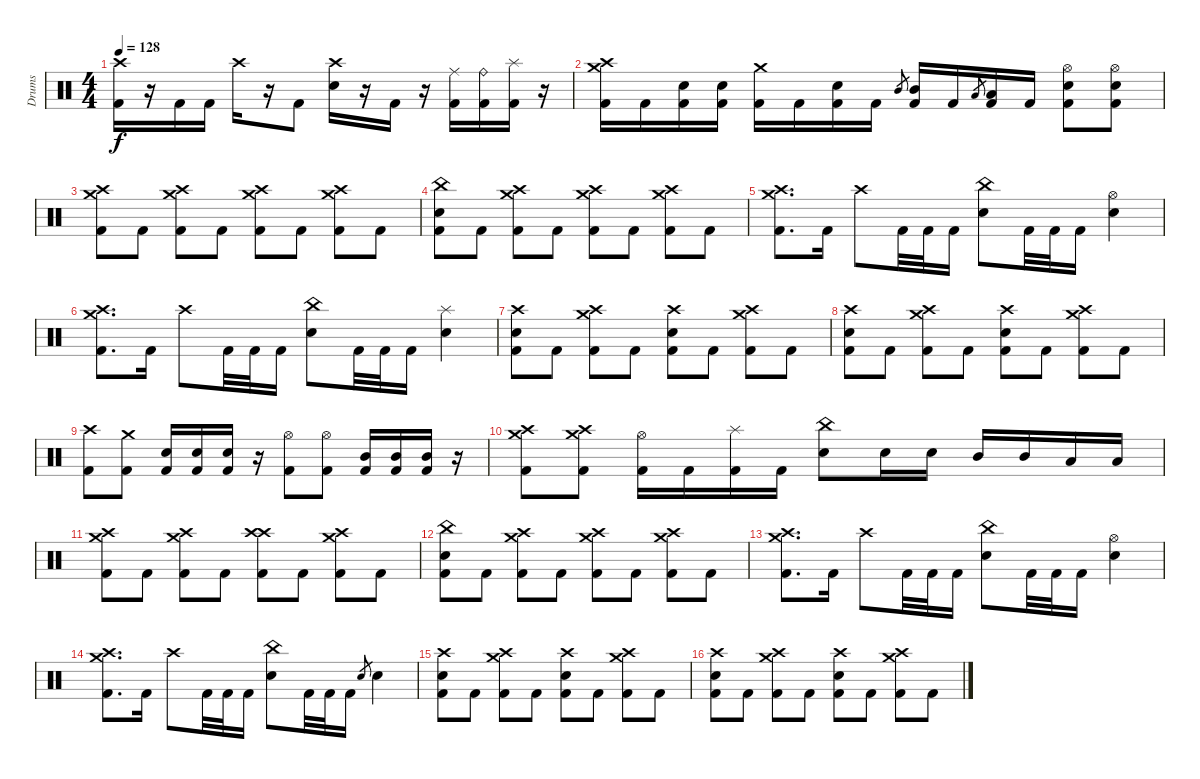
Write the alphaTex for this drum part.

\track ("Drums" "Drums") {solo instrument percussion}
\staff {score}
\articulation defaults
\ts (4 4)
\tempo 128
\clef neutral
\ks c
("Crash high (hit)" "Kick (hit) 2").16{dy f} r.16 "Kick (hit) 2".16 "Kick (hit) 2".16 "Crash high (hit)".16 r.16 "Kick (hit) 2".8 ("Crash high (hit)" "Electric Snare (hit)").16 r.16 "Kick (hit) 2".16 r.16 ("Ride (middle)" "Kick (hit) 2").16 ("Ride (bell)" "Kick (hit) 2").16 ("Splash (hit)" "Kick (hit) 2").16 r.16 |
("Crash high (hit)" "Crash medium (hit)" "Kick (hit) 2").16 "Kick (hit) 2".16 ("Electric Snare (hit)" "Kick (hit) 2").16 ("Electric Snare (hit)" "Kick (hit) 2").16 ("Crash medium (hit)" "Kick (hit) 2").16 "Kick (hit) 2".16 ("Electric Snare (hit)" "Kick (hit) 2").16 "Kick (hit) 2".16 "Mid Tom (hit)".8{gr} ("Mid Tom (hit)" "Kick (hit) 2").16 "Kick (hit) 2".16 "Low Tom (hit)".8{gr} ("Low Tom (hit)" "Kick (hit) 2").16 "Kick (hit) 2".16 ("Hi-Hat (open)" "Electric Snare (hit)" "Kick (hit) 2").8 ("Hi-Hat (open)" "Electric Snare (hit)" "Kick (hit) 2").8 |
("Crash high (hit)" "Crash medium (hit)" "Kick (hit) 2").8 "Kick (hit) 2".8 ("Crash high (hit)" "Crash medium (hit)" "Kick (hit) 2").8 "Kick (hit) 2".8 ("Crash high (hit)" "Crash medium (hit)" "Kick (hit) 2").8 "Kick (hit) 2".8 ("Crash high (hit)" "Crash medium (hit)" "Kick (hit) 2").8 "Kick (hit) 2".8 |
("China (hit)" "Electric Snare (hit)" "Kick (hit) 2").8 "Kick (hit) 2".8 ("Crash high (hit)" "Crash medium (hit)" "Kick (hit) 2").8 "Kick (hit) 2".8 ("Crash high (hit)" "Crash medium (hit)" "Kick (hit) 2").8 "Kick (hit) 2".8 ("Crash high (hit)" "Crash medium (hit)" "Kick (hit) 2").8 "Kick (hit) 2".8 |
("Crash high (hit)" "Crash medium (hit)" "Kick (hit) 2").8{d} "Kick (hit) 2".16 "Crash high (hit)".8 "Kick (hit) 2".32 "Kick (hit) 2".32 "Kick (hit) 2".16 ("China (hit)" "Electric Snare (hit)").8 "Kick (hit) 2".32 "Kick (hit) 2".32 "Kick (hit) 2".16 ("Hi-Hat (open)" "Electric Snare (hit)").4 |
("Crash high (hit)" "Crash medium (hit)" "Kick (hit) 2").8{d} "Kick (hit) 2".16 "Crash high (hit)".8 "Kick (hit) 2".32 "Kick (hit) 2".32 "Kick (hit) 2".16 ("China (hit)" "Electric Snare (hit)").8 "Kick (hit) 2".32 "Kick (hit) 2".32 "Kick (hit) 2".16 ("Splash (hit)" "Electric Snare (hit)").4 |
("Crash high (hit)" "Electric Snare (hit)" "Kick (hit) 2").8 "Kick (hit) 2".8 ("Crash medium (hit)" "Crash high (hit)" "Kick (hit) 2").8 "Kick (hit) 2".8 ("Crash high (hit)" "Electric Snare (hit)" "Kick (hit) 2").8 "Kick (hit) 2".8 ("Crash medium (hit)" "Crash high (hit)" "Kick (hit) 2").8 "Kick (hit) 2".8 |
("Crash high (hit)" "Electric Snare (hit)" "Kick (hit) 2").8 "Kick (hit) 2".8 ("Crash medium (hit)" "Crash high (hit)" "Kick (hit) 2").8 "Kick (hit) 2".8 ("Crash high (hit)" "Electric Snare (hit)" "Kick (hit) 2").8 "Kick (hit) 2".8 ("Crash medium (hit)" "Crash high (hit)" "Kick (hit) 2").8 "Kick (hit) 2".8 |
("Crash high (hit)" "Kick (hit) 2").8 ("Crash medium (hit)" "Kick (hit) 2").8 ("Electric Snare (hit)" "Kick (hit) 2").16 ("Electric Snare (hit)" "Kick (hit) 2").16 ("Electric Snare (hit)" "Kick (hit) 2").16 r.16 ("Hi-Hat (open)" "Kick (hit) 2").8 ("Hi-Hat (open)" "Kick (hit) 2").8 ("Mid Tom (hit)" "Kick (hit) 2").16 ("Mid Tom (hit)" "Kick (hit) 2").16 ("Mid Tom (hit)" "Kick (hit) 2").16 r.16 |
("Crash high (hit)" "Crash medium (hit)" "Kick (hit) 2").8 ("Crash high (hit)" "Crash medium (hit)" "Kick (hit) 2").8 ("Hi-Hat (open)" "Kick (hit) 2").16 "Kick (hit) 2".16 ("Splash (hit)" "Kick (hit) 2").16 "Kick (hit) 2".16 ("China (hit)" "Electric Snare (hit)").8 "Electric Snare (hit)".16 "Electric Snare (hit)".16 "Mid Tom (hit)".16 "Mid Tom (hit)".16 "Low Tom (hit)".16 "Low Tom (hit)".16 |
("Crash high (hit)" "Crash medium (hit)" "Kick (hit) 2").8 "Kick (hit) 2".8 ("Crash medium (hit)" "Crash high (hit)" "Kick (hit) 2").8 "Kick (hit) 2".8 ("Crash high (hit)" "Crash high (hit)" "Kick (hit) 2").8 "Kick (hit) 2".8 ("Crash medium (hit)" "Crash high (hit)" "Kick (hit) 2").8 "Kick (hit) 2".8 |
("China (hit)" "Electric Snare (hit)" "Kick (hit) 2").8 "Kick (hit) 2".8 ("Crash medium (hit)" "Crash high (hit)" "Kick (hit) 2").8 "Kick (hit) 2".8 ("Crash high (hit)" "Crash medium (hit)" "Kick (hit) 2").8 "Kick (hit) 2".8 ("Crash medium (hit)" "Crash high (hit)" "Kick (hit) 2").8 "Kick (hit) 2".8 |
("Crash high (hit)" "Crash medium (hit)" "Kick (hit) 2").8{d} "Kick (hit) 2".16 "Crash high (hit)".8 "Kick (hit) 2".32 "Kick (hit) 2".32 "Kick (hit) 2".16 ("China (hit)" "Electric Snare (hit)").8 "Kick (hit) 2".32 "Kick (hit) 2".32 "Kick (hit) 2".16 ("Hi-Hat (open)" "Electric Snare (hit)").4 |
("Crash high (hit)" "Crash medium (hit)" "Kick (hit) 2").8{d} "Kick (hit) 2".16 "Crash high (hit)".8 "Kick (hit) 2".32 "Kick (hit) 2".32 "Kick (hit) 2".16 ("China (hit)" "Electric Snare (hit)").8 "Kick (hit) 2".32 "Kick (hit) 2".32 "Kick (hit) 2".16 "Electric Snare (hit)".8{gr} "Electric Snare (hit)".4 |
("Crash high (hit)" "Electric Snare (hit)" "Kick (hit) 2").8 "Kick (hit) 2".8 ("Crash medium (hit)" "Crash high (hit)" "Kick (hit) 2").8 "Kick (hit) 2".8 ("Crash high (hit)" "Electric Snare (hit)" "Kick (hit) 2").8 "Kick (hit) 2".8 ("Crash medium (hit)" "Crash high (hit)" "Kick (hit) 2").8 "Kick (hit) 2".8 |
("Crash high (hit)" "Electric Snare (hit)" "Kick (hit) 2").8 "Kick (hit) 2".8 ("Crash medium (hit)" "Crash high (hit)" "Kick (hit) 2").8 "Kick (hit) 2".8 ("Crash high (hit)" "Electric Snare (hit)" "Kick (hit) 2").8 "Kick (hit) 2".8 ("Crash medium (hit)" "Crash high (hit)" "Kick (hit) 2").8 "Kick (hit) 2".8
